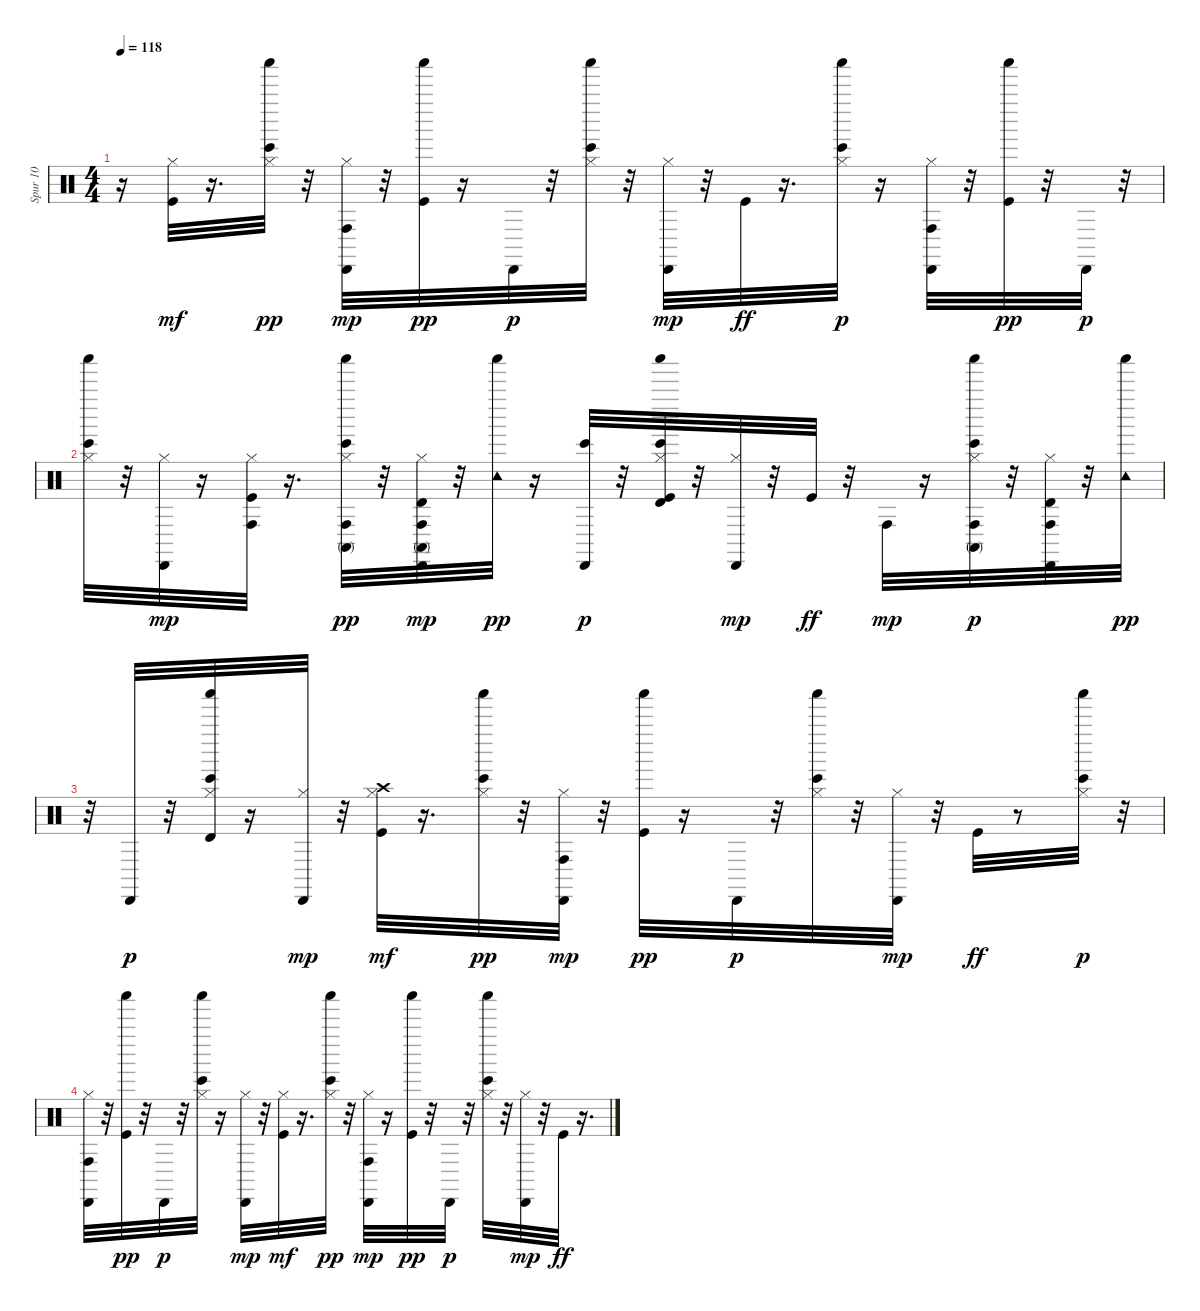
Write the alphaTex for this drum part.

\track ("Spur 10" "Spur 10") {instrument percussion}
\staff {score}
\articulation defaults
\ts (4 4)
\tempo 118
\clef neutral
\ks c
r.16{dy mp} ("Kick (hit)" "Hi-Hat (closed)").32{dy mf} r.16{d} ("Hi-Hat (closed)" "Bongo High (hit)" "Shaker (hit)").32{dy pp} r.32 ("Hi-Hat (closed)" "Conga high (hit)" "Cabasa (hit)").32{dy mp} r.32 ("Kick (hit)" "Shaker (hit)").32{dy pp} r.16 "Cabasa (hit)".32{dy p} r.32 ("Hi-Hat (closed)" "Bongo High (hit)" "Shaker (hit)").32 r.32 ("Hi-Hat (closed)" "Cabasa (hit)").32{dy mp} r.32 "Kick (hit)".32{dy ff} r.16{d} ("Hi-Hat (closed)" "Bongo High (hit)" "Shaker (hit)").32{dy p} r.16 ("Hi-Hat (closed)" "Conga high (hit)" "Cabasa (hit)").32 r.32 ("Kick (hit)" "Shaker (hit)").32{dy pp} r.32 "Cabasa (hit)".32{dy p} r.32 |
("Hi-Hat (closed)" "Bongo High (hit)" "Shaker (hit)").32 r.32 ("Hi-Hat (closed)" "Cabasa (hit)").32{dy mp} r.16 ("Kick (hit)" "Hi-Hat (closed)" "Conga high (hit)").32 r.16{d} ("Hi-Hat (closed)" "Bongo High (hit)" "Conga high (mute)" "Conga high (hit)" "Shaker (hit)").32{dy pp} r.32 ("Hi-Hat (closed)" "Conga high (mute)" "Conga high (hit)" "Timbale high (hit)" "Cabasa (hit)").32{dy mp} r.32 ("Tambourine (hit)" "Shaker (hit)").32{dy pp} r.16 ("Bongo High (hit)" "Cabasa (hit)").32{dy p} r.32 ("Kick (hit)" "Hi-Hat (closed)" "Bongo High (hit)" "Timbale high (hit)" "Shaker (hit)").32 r.32 ("Hi-Hat (closed)" "Cabasa (hit)").32{dy mp} r.32 "Kick (hit)".32{dy ff} r.32 "Conga high (hit)".32{dy mp} r.16 ("Hi-Hat (closed)" "Bongo High (hit)" "Conga high (mute)" "Conga high (hit)" "Shaker (hit)").32{dy p} r.32 ("Hi-Hat (closed)" "Conga high (hit)" "Timbale high (hit)" "Cabasa (hit)").32 r.32 ("Tambourine (hit)" "Shaker (hit)").32{dy pp} |
r.32 "Cabasa (hit)".32{dy p} r.32 ("Hi-Hat (closed)" "Bongo High (hit)" "Timbale high (hit)" "Shaker (hit)").32 r.16 ("Hi-Hat (closed)" "Cabasa (hit)").32{dy mp} r.32 ("Kick (hit)" "Hi-Hat (closed)" "Crash high (hit)").32{dy mf} r.16{d} ("Hi-Hat (closed)" "Bongo High (hit)" "Shaker (hit)").32{dy pp} r.32 ("Hi-Hat (closed)" "Conga high (hit)" "Cabasa (hit)").32{dy mp} r.32 ("Kick (hit)" "Shaker (hit)").32{dy pp} r.16 "Cabasa (hit)".32{dy p} r.32 ("Hi-Hat (closed)" "Bongo High (hit)" "Shaker (hit)").32 r.32 ("Hi-Hat (closed)" "Cabasa (hit)").32{dy mp} r.32 "Kick (hit)".32{dy ff} r.8 ("Hi-Hat (closed)" "Bongo High (hit)" "Shaker (hit)").32{dy p} r.32 |
("Hi-Hat (closed)" "Conga high (hit)" "Cabasa (hit)").32 r.32 ("Kick (hit)" "Shaker (hit)").32{dy pp} r.32 "Cabasa (hit)".32{dy p} r.32 ("Hi-Hat (closed)" "Bongo High (hit)" "Shaker (hit)").32 r.16 ("Hi-Hat (closed)" "Cabasa (hit)").32{dy mp} r.32 ("Kick (hit)" "Hi-Hat (closed)").32{dy mf} r.16{d} ("Hi-Hat (closed)" "Bongo High (hit)" "Shaker (hit)").32{dy pp} r.32 ("Hi-Hat (closed)" "Conga high (hit)" "Cabasa (hit)").32{dy mp} r.16 ("Kick (hit)" "Shaker (hit)").32{dy pp} r.32 "Cabasa (hit)".32{dy p} r.32 ("Hi-Hat (closed)" "Bongo High (hit)" "Shaker (hit)").32 r.32 ("Hi-Hat (closed)" "Cabasa (hit)").32{dy mp} r.32 "Kick (hit)".32{dy ff} r.16{d}
